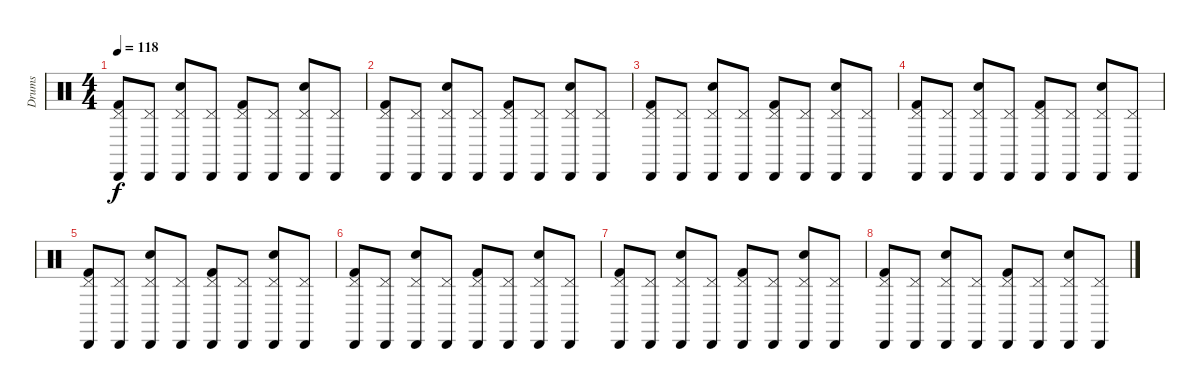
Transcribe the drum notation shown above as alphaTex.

\track ("Drums" "Drums") {instrument percussion}
\staff {score}
\articulation defaults
\ts (4 4)
\tempo 118
\clef neutral
\ks c
("Kick (hit) 2" "Pedal Hi-Hat (hit)" "Cabasa (hit)").8{dy f} ("Pedal Hi-Hat (hit)" "Cabasa (hit)").8 ("Pedal Hi-Hat (hit)" "Electric Snare (hit)" "Cabasa (hit)").8 ("Pedal Hi-Hat (hit)" "Cabasa (hit)").8 ("Kick (hit) 2" "Pedal Hi-Hat (hit)" "Cabasa (hit)").8 ("Pedal Hi-Hat (hit)" "Cabasa (hit)").8 ("Pedal Hi-Hat (hit)" "Electric Snare (hit)" "Cabasa (hit)").8 ("Pedal Hi-Hat (hit)" "Cabasa (hit)").8 |
("Kick (hit) 2" "Pedal Hi-Hat (hit)" "Cabasa (hit)").8 ("Pedal Hi-Hat (hit)" "Cabasa (hit)").8 ("Pedal Hi-Hat (hit)" "Electric Snare (hit)" "Cabasa (hit)").8 ("Pedal Hi-Hat (hit)" "Cabasa (hit)").8 ("Kick (hit) 2" "Pedal Hi-Hat (hit)" "Cabasa (hit)").8 ("Pedal Hi-Hat (hit)" "Cabasa (hit)").8 ("Pedal Hi-Hat (hit)" "Electric Snare (hit)" "Cabasa (hit)").8 ("Pedal Hi-Hat (hit)" "Cabasa (hit)").8 |
("Kick (hit) 2" "Pedal Hi-Hat (hit)" "Cabasa (hit)").8 ("Pedal Hi-Hat (hit)" "Cabasa (hit)").8 ("Pedal Hi-Hat (hit)" "Electric Snare (hit)" "Cabasa (hit)").8 ("Pedal Hi-Hat (hit)" "Cabasa (hit)").8 ("Kick (hit) 2" "Pedal Hi-Hat (hit)" "Cabasa (hit)").8 ("Pedal Hi-Hat (hit)" "Cabasa (hit)").8 ("Pedal Hi-Hat (hit)" "Electric Snare (hit)" "Cabasa (hit)").8 ("Pedal Hi-Hat (hit)" "Cabasa (hit)").8 |
("Kick (hit) 2" "Pedal Hi-Hat (hit)" "Cabasa (hit)").8 ("Pedal Hi-Hat (hit)" "Cabasa (hit)").8 ("Pedal Hi-Hat (hit)" "Electric Snare (hit)" "Cabasa (hit)").8 ("Pedal Hi-Hat (hit)" "Cabasa (hit)").8 ("Kick (hit) 2" "Pedal Hi-Hat (hit)" "Cabasa (hit)").8 ("Pedal Hi-Hat (hit)" "Cabasa (hit)").8 ("Pedal Hi-Hat (hit)" "Electric Snare (hit)" "Cabasa (hit)").8 ("Pedal Hi-Hat (hit)" "Cabasa (hit)").8 |
("Kick (hit) 2" "Pedal Hi-Hat (hit)" "Cabasa (hit)").8 ("Pedal Hi-Hat (hit)" "Cabasa (hit)").8 ("Pedal Hi-Hat (hit)" "Electric Snare (hit)" "Cabasa (hit)").8 ("Pedal Hi-Hat (hit)" "Cabasa (hit)").8 ("Kick (hit) 2" "Pedal Hi-Hat (hit)" "Cabasa (hit)").8 ("Pedal Hi-Hat (hit)" "Cabasa (hit)").8 ("Pedal Hi-Hat (hit)" "Electric Snare (hit)" "Cabasa (hit)").8 ("Pedal Hi-Hat (hit)" "Cabasa (hit)").8 |
("Kick (hit) 2" "Pedal Hi-Hat (hit)" "Cabasa (hit)").8 ("Pedal Hi-Hat (hit)" "Cabasa (hit)").8 ("Pedal Hi-Hat (hit)" "Electric Snare (hit)" "Cabasa (hit)").8 ("Pedal Hi-Hat (hit)" "Cabasa (hit)").8 ("Kick (hit) 2" "Pedal Hi-Hat (hit)" "Cabasa (hit)").8 ("Pedal Hi-Hat (hit)" "Cabasa (hit)").8 ("Pedal Hi-Hat (hit)" "Electric Snare (hit)" "Cabasa (hit)").8 ("Pedal Hi-Hat (hit)" "Cabasa (hit)").8 |
("Kick (hit) 2" "Pedal Hi-Hat (hit)" "Cabasa (hit)").8 ("Pedal Hi-Hat (hit)" "Cabasa (hit)").8 ("Pedal Hi-Hat (hit)" "Electric Snare (hit)" "Cabasa (hit)").8 ("Pedal Hi-Hat (hit)" "Cabasa (hit)").8 ("Kick (hit) 2" "Pedal Hi-Hat (hit)" "Cabasa (hit)").8 ("Pedal Hi-Hat (hit)" "Cabasa (hit)").8 ("Pedal Hi-Hat (hit)" "Electric Snare (hit)" "Cabasa (hit)").8 ("Pedal Hi-Hat (hit)" "Cabasa (hit)").8 |
("Kick (hit) 2" "Pedal Hi-Hat (hit)" "Cabasa (hit)").8 ("Pedal Hi-Hat (hit)" "Cabasa (hit)").8 ("Pedal Hi-Hat (hit)" "Electric Snare (hit)" "Cabasa (hit)").8 ("Pedal Hi-Hat (hit)" "Cabasa (hit)").8 ("Kick (hit) 2" "Pedal Hi-Hat (hit)" "Cabasa (hit)").8 ("Pedal Hi-Hat (hit)" "Cabasa (hit)").8 ("Pedal Hi-Hat (hit)" "Electric Snare (hit)" "Cabasa (hit)").8 ("Pedal Hi-Hat (hit)" "Cabasa (hit)").8
